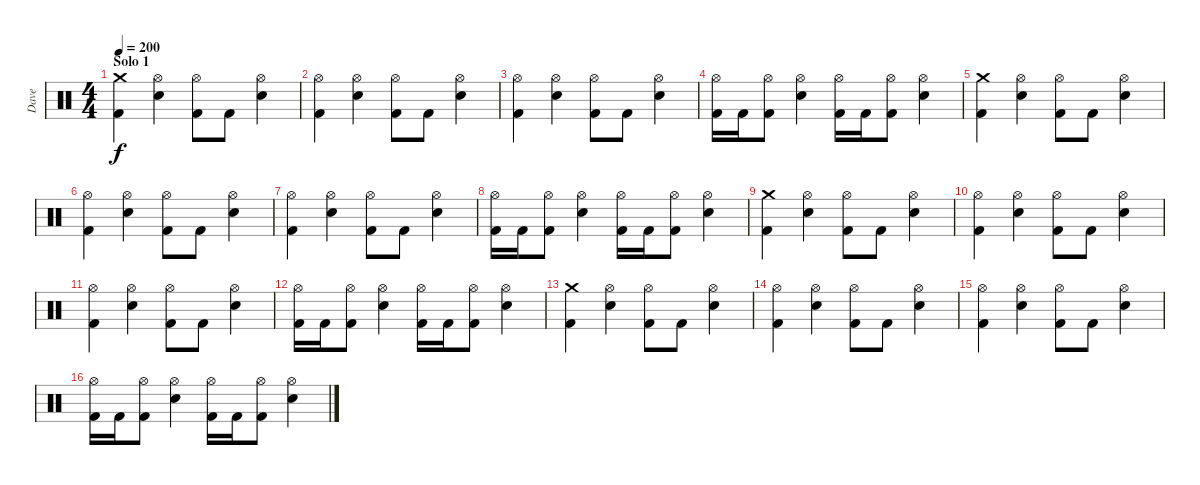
\track ("Dave" "Dave") {instrument percussion}
\staff {score}
\articulation defaults
\ts (4 4)
\section ("" "Solo 1")
\tempo 200
\clef neutral
\ks c
("Crash medium (hit)" "Kick (hit) 2").4{dy f} ("Hi-Hat (open)" "Snare (hit) 2").4 ("Hi-Hat (open)" "Kick (hit) 2").8 "Kick (hit) 2".8 ("Hi-Hat (open)" "Snare (hit) 2").4 |
("Hi-Hat (open)" "Kick (hit) 2").4 ("Hi-Hat (open)" "Snare (hit) 2").4 ("Hi-Hat (open)" "Kick (hit) 2").8 "Kick (hit) 2".8 ("Hi-Hat (open)" "Snare (hit) 2").4 |
("Hi-Hat (open)" "Kick (hit) 2").4 ("Hi-Hat (open)" "Snare (hit) 2").4 ("Hi-Hat (open)" "Kick (hit) 2").8 "Kick (hit) 2".8 ("Hi-Hat (open)" "Snare (hit) 2").4 |
("Hi-Hat (open)" "Kick (hit) 2").16 "Kick (hit) 2".16 ("Hi-Hat (open)" "Kick (hit) 2").8 ("Hi-Hat (open)" "Snare (hit) 2").4 ("Hi-Hat (open)" "Kick (hit) 2").16 "Kick (hit) 2".16 ("Hi-Hat (open)" "Kick (hit) 2").8 ("Hi-Hat (open)" "Snare (hit) 2").4 |
("Crash medium (hit)" "Kick (hit) 2").4 ("Hi-Hat (open)" "Snare (hit) 2").4 ("Hi-Hat (open)" "Kick (hit) 2").8 "Kick (hit) 2".8 ("Hi-Hat (open)" "Snare (hit) 2").4 |
("Hi-Hat (open)" "Kick (hit) 2").4 ("Hi-Hat (open)" "Snare (hit) 2").4 ("Hi-Hat (open)" "Kick (hit) 2").8 "Kick (hit) 2".8 ("Hi-Hat (open)" "Snare (hit) 2").4 |
("Hi-Hat (open)" "Kick (hit) 2").4 ("Hi-Hat (open)" "Snare (hit) 2").4 ("Hi-Hat (open)" "Kick (hit) 2").8 "Kick (hit) 2".8 ("Hi-Hat (open)" "Snare (hit) 2").4 |
("Hi-Hat (open)" "Kick (hit) 2").16 "Kick (hit) 2".16 ("Hi-Hat (open)" "Kick (hit) 2").8 ("Hi-Hat (open)" "Snare (hit) 2").4 ("Hi-Hat (open)" "Kick (hit) 2").16 "Kick (hit) 2".16 ("Hi-Hat (open)" "Kick (hit) 2").8 ("Hi-Hat (open)" "Snare (hit) 2").4 |
("Crash medium (hit)" "Kick (hit) 2").4 ("Hi-Hat (open)" "Snare (hit) 2").4 ("Hi-Hat (open)" "Kick (hit) 2").8 "Kick (hit) 2".8 ("Hi-Hat (open)" "Snare (hit) 2").4 |
("Hi-Hat (open)" "Kick (hit) 2").4 ("Hi-Hat (open)" "Snare (hit) 2").4 ("Hi-Hat (open)" "Kick (hit) 2").8 "Kick (hit) 2".8 ("Hi-Hat (open)" "Snare (hit) 2").4 |
("Hi-Hat (open)" "Kick (hit) 2").4 ("Hi-Hat (open)" "Snare (hit) 2").4 ("Hi-Hat (open)" "Kick (hit) 2").8 "Kick (hit) 2".8 ("Hi-Hat (open)" "Snare (hit) 2").4 |
("Hi-Hat (open)" "Kick (hit) 2").16 "Kick (hit) 2".16 ("Hi-Hat (open)" "Kick (hit) 2").8 ("Hi-Hat (open)" "Snare (hit) 2").4 ("Hi-Hat (open)" "Kick (hit) 2").16 "Kick (hit) 2".16 ("Hi-Hat (open)" "Kick (hit) 2").8 ("Hi-Hat (open)" "Snare (hit) 2").4 |
("Crash medium (hit)" "Kick (hit) 2").4 ("Hi-Hat (open)" "Snare (hit) 2").4 ("Hi-Hat (open)" "Kick (hit) 2").8 "Kick (hit) 2".8 ("Hi-Hat (open)" "Snare (hit) 2").4 |
("Hi-Hat (open)" "Kick (hit) 2").4 ("Hi-Hat (open)" "Snare (hit) 2").4 ("Hi-Hat (open)" "Kick (hit) 2").8 "Kick (hit) 2".8 ("Hi-Hat (open)" "Snare (hit) 2").4 |
("Hi-Hat (open)" "Kick (hit) 2").4 ("Hi-Hat (open)" "Snare (hit) 2").4 ("Hi-Hat (open)" "Kick (hit) 2").8 "Kick (hit) 2".8 ("Hi-Hat (open)" "Snare (hit) 2").4 |
("Hi-Hat (open)" "Kick (hit) 2").16 "Kick (hit) 2".16 ("Hi-Hat (open)" "Kick (hit) 2").8 ("Hi-Hat (open)" "Snare (hit) 2").4 ("Hi-Hat (open)" "Kick (hit) 2").16 "Kick (hit) 2".16 ("Hi-Hat (open)" "Kick (hit) 2").8 ("Hi-Hat (open)" "Snare (hit) 2").4
